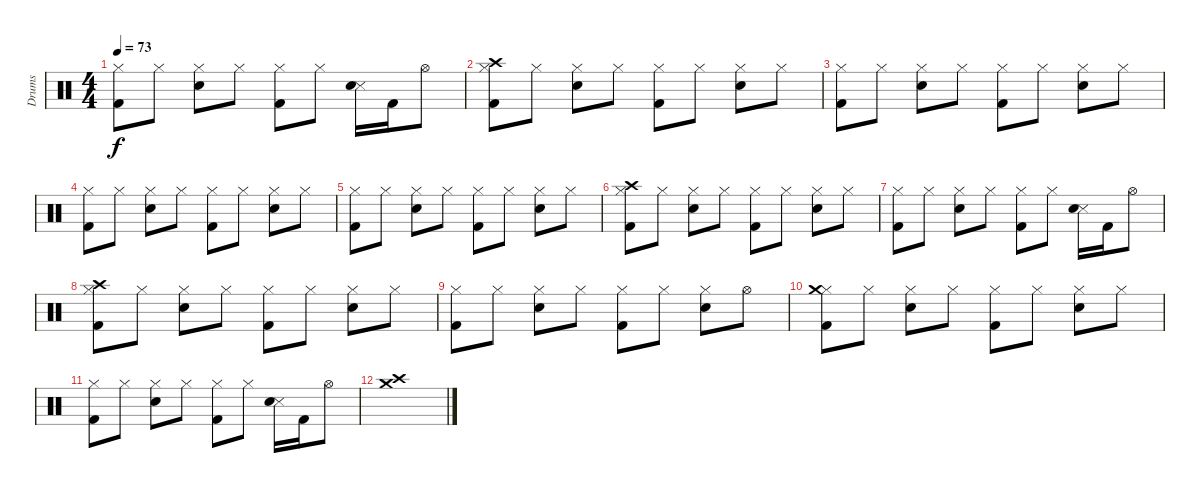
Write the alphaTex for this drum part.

\track ("Drums" "Drums") {instrument percussion}
\staff {score}
\articulation defaults
\ts (4 4)
\tempo 73
\clef neutral
\ks c
("Hi-Hat (closed)" "Kick (hit) 2").8{dy f} "Hi-Hat (closed)".8 ("Hi-Hat (closed)" "Electric Snare (hit)").8 "Hi-Hat (closed)".8 ("Hi-Hat (closed)" "Kick (hit) 2").8 "Hi-Hat (closed)".8 ("Snare (side stick) 3" "Electric Snare (hit)").16 "Kick (hit) 2".16 "Hi-Hat (open)".8 |
("Hi-Hat (closed)" "Kick (hit) 2" "Crash high (hit)").8 "Hi-Hat (closed)".8 ("Hi-Hat (closed)" "Electric Snare (hit)").8 "Hi-Hat (closed)".8 ("Hi-Hat (closed)" "Kick (hit) 2").8 "Hi-Hat (closed)".8 ("Hi-Hat (closed)" "Electric Snare (hit)").8 "Hi-Hat (closed)".8 |
("Hi-Hat (closed)" "Kick (hit) 2").8 "Hi-Hat (closed)".8 ("Hi-Hat (closed)" "Electric Snare (hit)").8 "Hi-Hat (closed)".8 ("Hi-Hat (closed)" "Kick (hit) 2").8 "Hi-Hat (closed)".8 ("Hi-Hat (closed)" "Electric Snare (hit)").8 "Hi-Hat (closed)".8 |
("Hi-Hat (closed)" "Kick (hit) 2").8 "Hi-Hat (closed)".8 ("Hi-Hat (closed)" "Electric Snare (hit)").8 "Hi-Hat (closed)".8 ("Hi-Hat (closed)" "Kick (hit) 2").8 "Hi-Hat (closed)".8 ("Hi-Hat (closed)" "Electric Snare (hit)").8 "Hi-Hat (closed)".8 |
("Hi-Hat (closed)" "Kick (hit) 2").8 "Hi-Hat (closed)".8 ("Hi-Hat (closed)" "Electric Snare (hit)").8 "Hi-Hat (closed)".8 ("Hi-Hat (closed)" "Kick (hit) 2").8 "Hi-Hat (closed)".8 ("Hi-Hat (closed)" "Electric Snare (hit)").8 "Hi-Hat (closed)".8 |
("Hi-Hat (closed)" "Kick (hit) 2" "Crash high (hit)").8 "Hi-Hat (closed)".8 ("Hi-Hat (closed)" "Electric Snare (hit)").8 "Hi-Hat (closed)".8 ("Hi-Hat (closed)" "Kick (hit) 2").8 "Hi-Hat (closed)".8 ("Hi-Hat (closed)" "Electric Snare (hit)").8 "Hi-Hat (closed)".8 |
("Hi-Hat (closed)" "Kick (hit) 2").8 "Hi-Hat (closed)".8 ("Hi-Hat (closed)" "Electric Snare (hit)").8 "Hi-Hat (closed)".8 ("Hi-Hat (closed)" "Kick (hit) 2").8 "Hi-Hat (closed)".8 ("Snare (side stick) 3" "Electric Snare (hit)").16 "Kick (hit) 2".16 "Hi-Hat (open)".8 |
("Hi-Hat (closed)" "Kick (hit) 2" "Crash high (hit)").8 "Hi-Hat (closed)".8 ("Hi-Hat (closed)" "Electric Snare (hit)").8 "Hi-Hat (closed)".8 ("Hi-Hat (closed)" "Kick (hit) 2").8 "Hi-Hat (closed)".8 ("Hi-Hat (closed)" "Electric Snare (hit)").8 "Hi-Hat (closed)".8 |
("Hi-Hat (closed)" "Kick (hit) 2").8 "Hi-Hat (closed)".8 ("Hi-Hat (closed)" "Electric Snare (hit)").8 "Hi-Hat (closed)".8 ("Hi-Hat (closed)" "Kick (hit) 2").8 "Hi-Hat (closed)".8 ("Hi-Hat (closed)" "Electric Snare (hit)").8 "Hi-Hat (open)".8 |
("Hi-Hat (closed)" "Kick (hit) 2" "Crash medium (hit)").8 "Hi-Hat (closed)".8 ("Hi-Hat (closed)" "Electric Snare (hit)").8 "Hi-Hat (closed)".8 ("Hi-Hat (closed)" "Kick (hit) 2").8 "Hi-Hat (closed)".8 ("Hi-Hat (closed)" "Electric Snare (hit)").8 "Hi-Hat (closed)".8 |
("Hi-Hat (closed)" "Kick (hit) 2").8 "Hi-Hat (closed)".8 ("Hi-Hat (closed)" "Electric Snare (hit)").8 "Hi-Hat (closed)".8 ("Hi-Hat (closed)" "Kick (hit) 2").8 "Hi-Hat (closed)".8 ("Snare (side stick) 3" "Electric Snare (hit)").16 "Kick (hit) 2".16 "Hi-Hat (open)".8 |
("Crash medium (hit)" "Crash high (hit)").1
